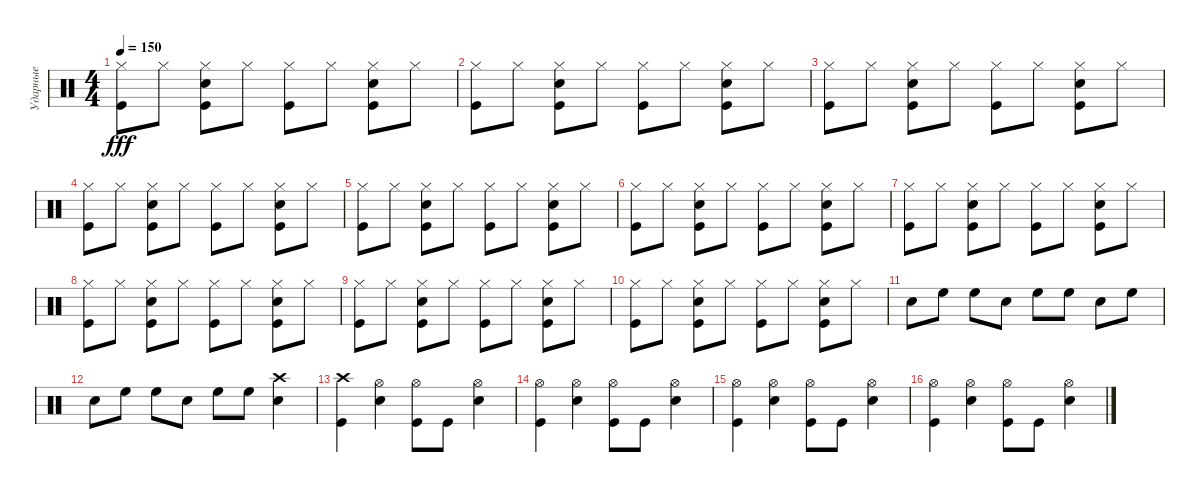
\track ("Ударные" "Ударные") {instrument percussion}
\staff {score}
\articulation defaults
\ts (4 4)
\tempo 150
\clef neutral
\ks c
("Kick (hit)" "Hi-Hat (closed)").8{dy fff} "Hi-Hat (closed)".8 ("Hi-Hat (closed)" "Electric Snare (hit)" "Kick (hit)").8 "Hi-Hat (closed)".8 ("Hi-Hat (closed)" "Kick (hit)").8 "Hi-Hat (closed)".8 ("Hi-Hat (closed)" "Kick (hit)" "Electric Snare (hit)").8 "Hi-Hat (closed)".8 |
("Kick (hit)" "Hi-Hat (closed)").8 "Hi-Hat (closed)".8 ("Hi-Hat (closed)" "Electric Snare (hit)" "Kick (hit)").8 "Hi-Hat (closed)".8 ("Hi-Hat (closed)" "Kick (hit)").8 "Hi-Hat (closed)".8 ("Hi-Hat (closed)" "Kick (hit)" "Electric Snare (hit)").8 "Hi-Hat (closed)".8 |
("Kick (hit)" "Hi-Hat (closed)").8 "Hi-Hat (closed)".8 ("Hi-Hat (closed)" "Electric Snare (hit)" "Kick (hit)").8 "Hi-Hat (closed)".8 ("Hi-Hat (closed)" "Kick (hit)").8 "Hi-Hat (closed)".8 ("Hi-Hat (closed)" "Kick (hit)" "Electric Snare (hit)").8 "Hi-Hat (closed)".8 |
("Kick (hit)" "Hi-Hat (closed)").8 "Hi-Hat (closed)".8 ("Hi-Hat (closed)" "Electric Snare (hit)" "Kick (hit)").8 "Hi-Hat (closed)".8 ("Hi-Hat (closed)" "Kick (hit)").8 "Hi-Hat (closed)".8 ("Hi-Hat (closed)" "Kick (hit)" "Electric Snare (hit)").8 "Hi-Hat (closed)".8 |
("Kick (hit)" "Hi-Hat (closed)").8 "Hi-Hat (closed)".8 ("Hi-Hat (closed)" "Electric Snare (hit)" "Kick (hit)").8 "Hi-Hat (closed)".8 ("Hi-Hat (closed)" "Kick (hit)").8 "Hi-Hat (closed)".8 ("Hi-Hat (closed)" "Kick (hit)" "Electric Snare (hit)").8 "Hi-Hat (closed)".8 |
("Kick (hit)" "Hi-Hat (closed)").8 "Hi-Hat (closed)".8 ("Hi-Hat (closed)" "Electric Snare (hit)" "Kick (hit)").8 "Hi-Hat (closed)".8 ("Hi-Hat (closed)" "Kick (hit)").8 "Hi-Hat (closed)".8 ("Hi-Hat (closed)" "Kick (hit)" "Electric Snare (hit)").8 "Hi-Hat (closed)".8 |
("Kick (hit)" "Hi-Hat (closed)").8 "Hi-Hat (closed)".8 ("Hi-Hat (closed)" "Electric Snare (hit)" "Kick (hit)").8 "Hi-Hat (closed)".8 ("Hi-Hat (closed)" "Kick (hit)").8 "Hi-Hat (closed)".8 ("Hi-Hat (closed)" "Kick (hit)" "Electric Snare (hit)").8 "Hi-Hat (closed)".8 |
("Kick (hit)" "Hi-Hat (closed)").8 "Hi-Hat (closed)".8 ("Hi-Hat (closed)" "Electric Snare (hit)" "Kick (hit)").8 "Hi-Hat (closed)".8 ("Hi-Hat (closed)" "Kick (hit)").8 "Hi-Hat (closed)".8 ("Hi-Hat (closed)" "Kick (hit)" "Electric Snare (hit)").8 "Hi-Hat (closed)".8 |
("Kick (hit)" "Hi-Hat (closed)").8 "Hi-Hat (closed)".8 ("Hi-Hat (closed)" "Electric Snare (hit)" "Kick (hit)").8 "Hi-Hat (closed)".8 ("Hi-Hat (closed)" "Kick (hit)").8 "Hi-Hat (closed)".8 ("Hi-Hat (closed)" "Kick (hit)" "Electric Snare (hit)").8 "Hi-Hat (closed)".8 |
("Kick (hit)" "Hi-Hat (closed)").8 "Hi-Hat (closed)".8 ("Hi-Hat (closed)" "Electric Snare (hit)" "Kick (hit)").8 "Hi-Hat (closed)".8 ("Hi-Hat (closed)" "Kick (hit)").8 "Hi-Hat (closed)".8 ("Hi-Hat (closed)" "Kick (hit)" "Electric Snare (hit)").8 "Hi-Hat (closed)".8 |
"Electric Snare (hit)".8 "High Floor Tom (hit)".8 "High Floor Tom (hit)".8 "Electric Snare (hit)".8 "High Floor Tom (hit)".8 "High Floor Tom (hit)".8 "Electric Snare (hit)".8 "High Floor Tom (hit)".8 |
"Electric Snare (hit)".8 "High Floor Tom (hit)".8 "High Floor Tom (hit)".8 "Electric Snare (hit)".8 "High Floor Tom (hit)".8 "High Floor Tom (hit)".8 ("Electric Snare (hit)" "Crash high (hit)").4 |
("Crash high (hit)" "Kick (hit)").4 ("Hi-Hat (open)" "Electric Snare (hit)").4 ("Hi-Hat (open)" "Kick (hit)").8 "Kick (hit)".8 ("Hi-Hat (open)" "Electric Snare (hit)").4 |
("Hi-Hat (open)" "Kick (hit)").4 ("Hi-Hat (open)" "Electric Snare (hit)").4 ("Hi-Hat (open)" "Kick (hit)").8 "Kick (hit)".8 ("Hi-Hat (open)" "Electric Snare (hit)").4 |
("Hi-Hat (open)" "Kick (hit)").4 ("Hi-Hat (open)" "Electric Snare (hit)").4 ("Hi-Hat (open)" "Kick (hit)").8 "Kick (hit)".8 ("Hi-Hat (open)" "Electric Snare (hit)").4 |
("Hi-Hat (open)" "Kick (hit)").4 ("Hi-Hat (open)" "Electric Snare (hit)").4 ("Hi-Hat (open)" "Kick (hit)").8 "Kick (hit)".8 ("Hi-Hat (open)" "Electric Snare (hit)").4
